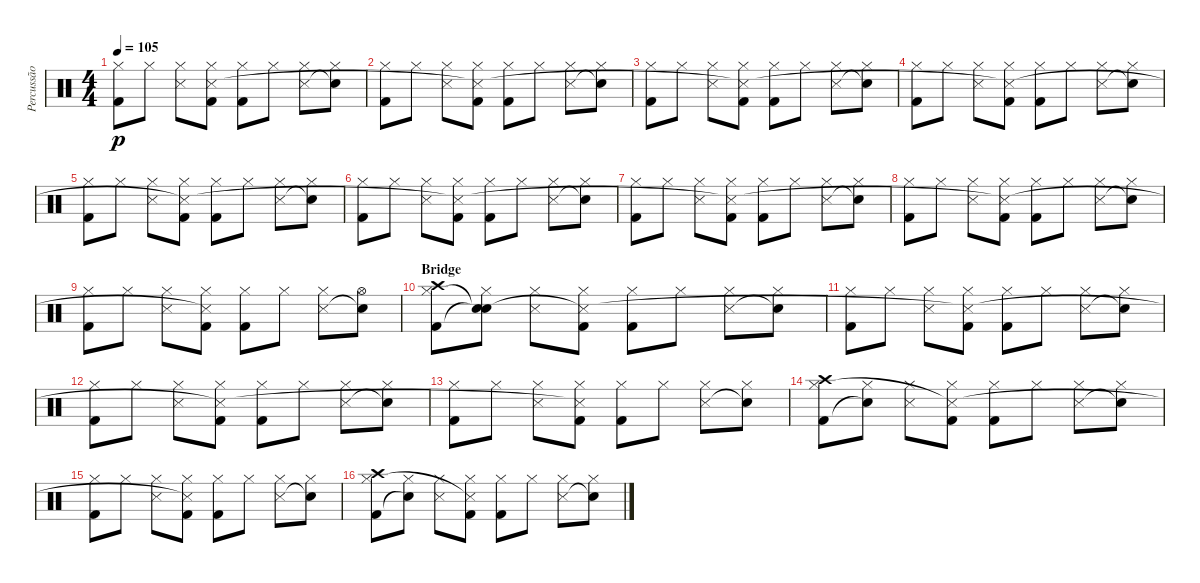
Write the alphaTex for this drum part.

\track ("Percussão" "Percussão") {instrument percussion}
\staff {score}
\articulation defaults
\ts (4 4)
\tempo 105
\clef neutral
\ks c
("Kick (hit) 2" "Hi-Hat (closed)").8{dy p} "Hi-Hat (closed)".8 ("Hi-Hat (closed)" "Snare (side stick) 3").8 ("Kick (hit) 2" "Hi-Hat (closed)" "Snare (side stick) 3"{t}).8 ("Kick (hit) 2" "Hi-Hat (closed)").8 "Hi-Hat (closed)".8 ("Hi-Hat (closed)" "Snare (side stick) 3").8 ("Hi-Hat (closed)" "Snare (hit)"{t}).8 |
("Kick (hit) 2" "Hi-Hat (closed)").8 "Hi-Hat (closed)".8 ("Hi-Hat (closed)" "Snare (side stick) 3").8 ("Kick (hit) 2" "Hi-Hat (closed)" "Snare (side stick) 3"{t}).8 ("Kick (hit) 2" "Hi-Hat (closed)").8 "Hi-Hat (closed)".8 ("Hi-Hat (closed)" "Snare (side stick) 3").8 ("Hi-Hat (closed)" "Snare (hit)"{t}).8 |
("Kick (hit) 2" "Hi-Hat (closed)").8 "Hi-Hat (closed)".8 ("Hi-Hat (closed)" "Snare (side stick) 3").8 ("Kick (hit) 2" "Hi-Hat (closed)" "Snare (side stick) 3"{t}).8 ("Kick (hit) 2" "Hi-Hat (closed)").8 "Hi-Hat (closed)".8 ("Hi-Hat (closed)" "Snare (side stick) 3").8 ("Hi-Hat (closed)" "Snare (hit)"{t}).8 |
("Kick (hit) 2" "Hi-Hat (closed)").8 "Hi-Hat (closed)".8 ("Hi-Hat (closed)" "Snare (side stick) 3").8 ("Kick (hit) 2" "Hi-Hat (closed)" "Snare (side stick) 3"{t}).8 ("Kick (hit) 2" "Hi-Hat (closed)").8 "Hi-Hat (closed)".8 ("Hi-Hat (closed)" "Snare (side stick) 3").8 ("Hi-Hat (closed)" "Snare (hit)"{t}).8 |
("Kick (hit) 2" "Hi-Hat (closed)").8 "Hi-Hat (closed)".8 ("Hi-Hat (closed)" "Snare (side stick) 3").8 ("Kick (hit) 2" "Hi-Hat (closed)" "Snare (side stick) 3"{t}).8 ("Kick (hit) 2" "Hi-Hat (closed)").8 "Hi-Hat (closed)".8 ("Hi-Hat (closed)" "Snare (side stick) 3").8 ("Hi-Hat (closed)" "Snare (hit)"{t}).8 |
("Kick (hit) 2" "Hi-Hat (closed)").8 "Hi-Hat (closed)".8 ("Hi-Hat (closed)" "Snare (side stick) 3").8 ("Kick (hit) 2" "Hi-Hat (closed)" "Snare (side stick) 3"{t}).8 ("Kick (hit) 2" "Hi-Hat (closed)").8 "Hi-Hat (closed)".8 ("Hi-Hat (closed)" "Snare (side stick) 3").8 ("Hi-Hat (closed)" "Snare (hit)"{t}).8 |
("Kick (hit) 2" "Hi-Hat (closed)").8 "Hi-Hat (closed)".8 ("Hi-Hat (closed)" "Snare (side stick) 3").8 ("Kick (hit) 2" "Hi-Hat (closed)" "Snare (side stick) 3"{t}).8 ("Kick (hit) 2" "Hi-Hat (closed)").8 "Hi-Hat (closed)".8 ("Hi-Hat (closed)" "Snare (side stick) 3").8 ("Hi-Hat (closed)" "Snare (hit)"{t}).8 |
("Kick (hit) 2" "Hi-Hat (closed)").8 "Hi-Hat (closed)".8 ("Hi-Hat (closed)" "Snare (side stick) 3").8 ("Kick (hit) 2" "Hi-Hat (closed)" "Snare (side stick) 3"{t}).8 ("Kick (hit) 2" "Hi-Hat (closed)").8 "Hi-Hat (closed)".8 ("Hi-Hat (closed)" "Snare (side stick) 3").8 ("Hi-Hat (closed)" "Snare (hit)"{t}).8 |
("Kick (hit) 2" "Hi-Hat (closed)").8 "Hi-Hat (closed)".8 ("Hi-Hat (closed)" "Snare (side stick) 3").8 ("Kick (hit) 2" "Hi-Hat (closed)" "Snare (side stick) 3"{t}).8 ("Kick (hit) 2" "Hi-Hat (closed)").8 "Hi-Hat (closed)".8 ("Hi-Hat (closed)" "Snare (side stick) 3").8 ("Hi-Hat (open)" "Snare (hit)"{t}).8 |
\section ("" "Bridge")
("Kick (hit) 2" "Crash high (hit)" "Hi-Hat (closed)").8 ("Snare (hit)"{t} "Hi-Hat (closed)" "Snare (hit)"{t}).8 ("Hi-Hat (closed)" "Snare (side stick) 3").8 ("Kick (hit) 2" "Hi-Hat (closed)" "Snare (side stick) 3"{t}).8 ("Kick (hit) 2" "Hi-Hat (closed)").8 "Hi-Hat (closed)".8 ("Hi-Hat (closed)" "Snare (side stick) 3").8 ("Hi-Hat (closed)" "Snare (hit)"{t}).8 |
("Kick (hit) 2" "Hi-Hat (closed)").8 "Hi-Hat (closed)".8 ("Hi-Hat (closed)" "Snare (side stick) 3").8 ("Kick (hit) 2" "Hi-Hat (closed)" "Snare (side stick) 3"{t}).8 ("Kick (hit) 2" "Hi-Hat (closed)").8 "Hi-Hat (closed)".8 ("Hi-Hat (closed)" "Snare (side stick) 3").8 ("Hi-Hat (closed)" "Snare (hit)"{t}).8 |
("Kick (hit) 2" "Hi-Hat (closed)").8 "Hi-Hat (closed)".8 ("Hi-Hat (closed)" "Snare (side stick) 3").8 ("Kick (hit) 2" "Hi-Hat (closed)" "Snare (side stick) 3"{t}).8 ("Kick (hit) 2" "Hi-Hat (closed)").8 "Hi-Hat (closed)".8 ("Hi-Hat (closed)" "Snare (side stick) 3").8 ("Hi-Hat (closed)" "Snare (hit)"{t}).8 |
("Kick (hit) 2" "Hi-Hat (closed)").8 "Hi-Hat (closed)".8 ("Hi-Hat (closed)" "Snare (side stick) 3").8 ("Kick (hit) 2" "Hi-Hat (closed)" "Snare (side stick) 3"{t}).8 ("Kick (hit) 2" "Hi-Hat (closed)").8 "Hi-Hat (closed)".8 ("Hi-Hat (closed)" "Snare (side stick) 3").8 ("Hi-Hat (closed)" "Snare (hit)"{t}).8 |
("Kick (hit) 2" "Crash high (hit)" "Hi-Hat (closed)").8 ("Snare (hit)"{t} "Hi-Hat (closed)").8 ("Hi-Hat (closed)" "Snare (side stick) 3").8 ("Kick (hit) 2" "Hi-Hat (closed)" "Snare (side stick) 3"{t}).8 ("Kick (hit) 2" "Hi-Hat (closed)").8 "Hi-Hat (closed)".8 ("Hi-Hat (closed)" "Snare (side stick) 3").8 ("Hi-Hat (closed)" "Snare (hit)"{t}).8 |
("Kick (hit) 2" "Hi-Hat (closed)").8 "Hi-Hat (closed)".8 ("Hi-Hat (closed)" "Snare (side stick) 3").8 ("Kick (hit) 2" "Hi-Hat (closed)" "Snare (side stick) 3"{t}).8 ("Kick (hit) 2" "Hi-Hat (closed)").8 "Hi-Hat (closed)".8 ("Hi-Hat (closed)" "Snare (side stick) 3").8 ("Hi-Hat (closed)" "Snare (hit)"{t}).8 |
("Kick (hit) 2" "Crash high (hit)" "Hi-Hat (closed)").8 ("Snare (hit)"{t} "Hi-Hat (closed)").8 ("Hi-Hat (closed)" "Snare (side stick) 3").8 ("Kick (hit) 2" "Hi-Hat (closed)" "Snare (side stick) 3"{t}).8 ("Kick (hit) 2" "Hi-Hat (closed)").8 "Hi-Hat (closed)".8 ("Hi-Hat (closed)" "Snare (side stick) 3").8 ("Hi-Hat (closed)" "Snare (hit)"{t}).8
